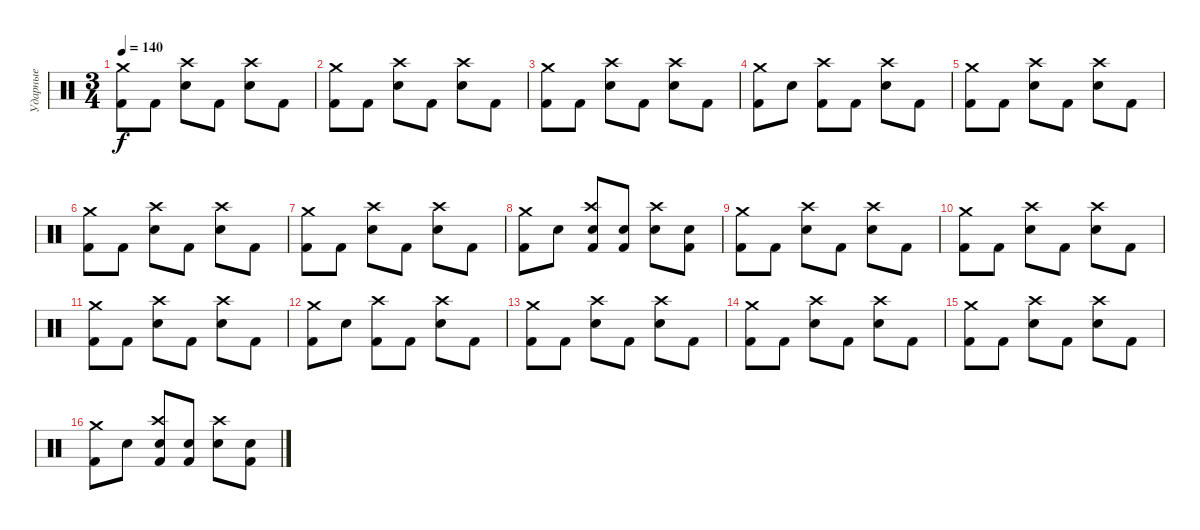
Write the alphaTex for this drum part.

\track ("Ударные" "Ударные") {instrument percussion}
\staff {score}
\articulation defaults
\ts (3 4)
\tempo 140
\clef neutral
\ks c
("Crash medium (hit)" "Kick (hit) 2").8{dy f} "Kick (hit) 2".8 ("Crash high (hit)" "Electric Snare (hit)").8 "Kick (hit) 2".8 ("Crash high (hit)" "Electric Snare (hit)").8 "Kick (hit) 2".8 |
("Crash medium (hit)" "Kick (hit) 2").8 "Kick (hit) 2".8 ("Crash high (hit)" "Electric Snare (hit)").8 "Kick (hit) 2".8 ("Crash high (hit)" "Electric Snare (hit)").8 "Kick (hit) 2".8 |
("Crash medium (hit)" "Kick (hit) 2").8 "Kick (hit) 2".8 ("Crash high (hit)" "Electric Snare (hit)").8 "Kick (hit) 2".8 ("Crash high (hit)" "Electric Snare (hit)").8 "Kick (hit) 2".8 |
("Crash medium (hit)" "Kick (hit) 2").8 "Electric Snare (hit)".8 ("Crash high (hit)" "Kick (hit) 2").8 "Kick (hit) 2".8 ("Crash high (hit)" "Electric Snare (hit)").8 "Kick (hit) 2".8 |
("Crash medium (hit)" "Kick (hit) 2").8 "Kick (hit) 2".8 ("Crash high (hit)" "Electric Snare (hit)").8 "Kick (hit) 2".8 ("Crash high (hit)" "Electric Snare (hit)").8 "Kick (hit) 2".8 |
("Crash medium (hit)" "Kick (hit) 2").8 "Kick (hit) 2".8 ("Crash high (hit)" "Electric Snare (hit)").8 "Kick (hit) 2".8 ("Crash high (hit)" "Electric Snare (hit)").8 "Kick (hit) 2".8 |
("Crash medium (hit)" "Kick (hit) 2").8 "Kick (hit) 2".8 ("Crash high (hit)" "Electric Snare (hit)").8 "Kick (hit) 2".8 ("Crash high (hit)" "Electric Snare (hit)").8 "Kick (hit) 2".8 |
("Crash medium (hit)" "Kick (hit) 2").8 "Electric Snare (hit)".8 ("Crash high (hit)" "Electric Snare (hit)" "Kick (hit) 2").8 ("Electric Snare (hit)" "Kick (hit) 2").8 ("Crash high (hit)" "Electric Snare (hit)").8 ("Electric Snare (hit)" "Kick (hit) 2").8 |
("Crash medium (hit)" "Kick (hit) 2").8 "Kick (hit) 2".8 ("Crash high (hit)" "Electric Snare (hit)").8 "Kick (hit) 2".8 ("Crash high (hit)" "Electric Snare (hit)").8 "Kick (hit) 2".8 |
("Crash medium (hit)" "Kick (hit) 2").8 "Kick (hit) 2".8 ("Crash high (hit)" "Electric Snare (hit)").8 "Kick (hit) 2".8 ("Crash high (hit)" "Electric Snare (hit)").8 "Kick (hit) 2".8 |
("Crash medium (hit)" "Kick (hit) 2").8 "Kick (hit) 2".8 ("Crash high (hit)" "Electric Snare (hit)").8 "Kick (hit) 2".8 ("Crash high (hit)" "Electric Snare (hit)").8 "Kick (hit) 2".8 |
("Crash medium (hit)" "Kick (hit) 2").8 "Electric Snare (hit)".8 ("Crash high (hit)" "Kick (hit) 2").8 "Kick (hit) 2".8 ("Crash high (hit)" "Electric Snare (hit)").8 "Kick (hit) 2".8 |
("Crash medium (hit)" "Kick (hit) 2").8 "Kick (hit) 2".8 ("Crash high (hit)" "Electric Snare (hit)").8 "Kick (hit) 2".8 ("Crash high (hit)" "Electric Snare (hit)").8 "Kick (hit) 2".8 |
("Crash medium (hit)" "Kick (hit) 2").8 "Kick (hit) 2".8 ("Crash high (hit)" "Electric Snare (hit)").8 "Kick (hit) 2".8 ("Crash high (hit)" "Electric Snare (hit)").8 "Kick (hit) 2".8 |
("Crash medium (hit)" "Kick (hit) 2").8 "Kick (hit) 2".8 ("Crash high (hit)" "Electric Snare (hit)").8 "Kick (hit) 2".8 ("Crash high (hit)" "Electric Snare (hit)").8 "Kick (hit) 2".8 |
("Crash medium (hit)" "Kick (hit) 2").8 "Electric Snare (hit)".8 ("Crash high (hit)" "Electric Snare (hit)" "Kick (hit) 2").8 ("Electric Snare (hit)" "Kick (hit) 2").8 ("Crash high (hit)" "Electric Snare (hit)").8 ("Electric Snare (hit)" "Kick (hit) 2").8
